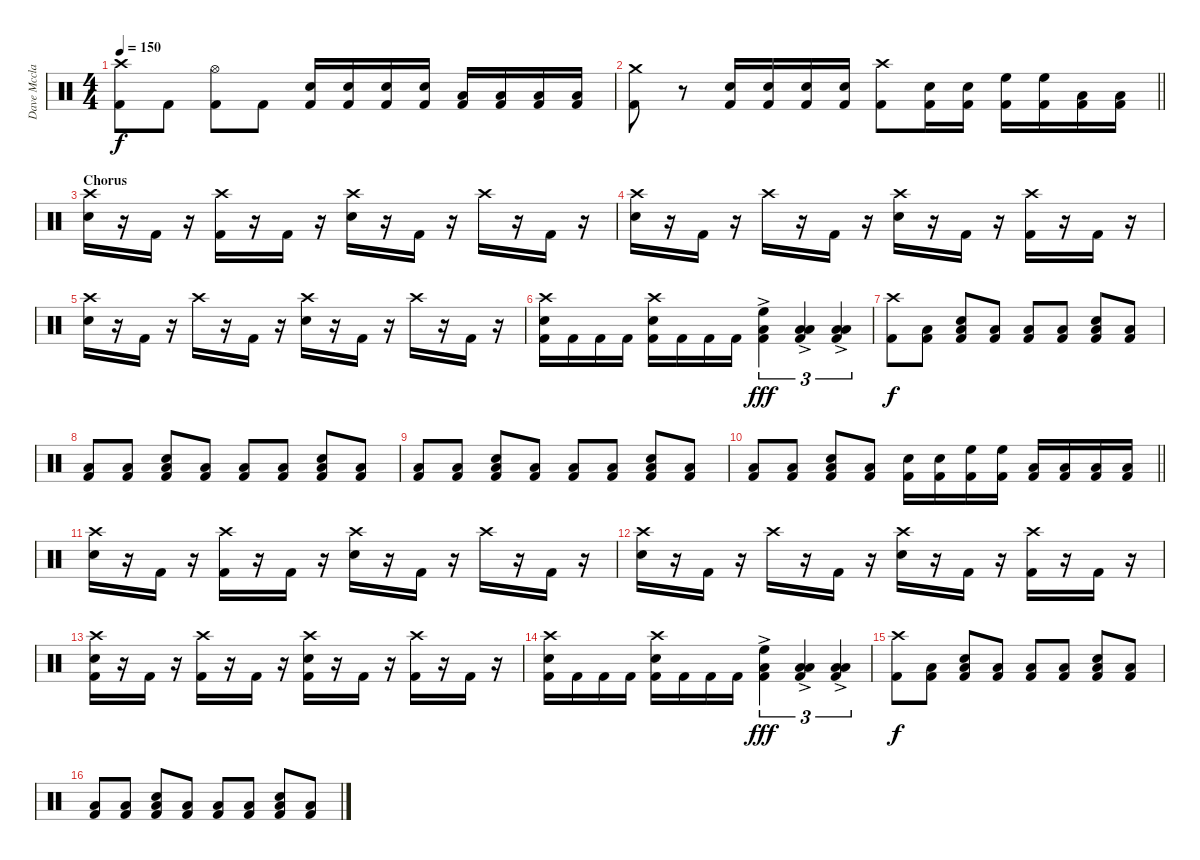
\track ("Dave Mcclain" "Dave Mccla") {instrument percussion}
\staff {score}
\articulation defaults
\ts (4 4)
\tempo 150
\clef neutral
\ks c
("Crash high (hit)" "Kick (hit) 2").8{dy f} "Kick (hit) 2".8 ("Hi-Hat (open)" "Kick (hit) 2").8 "Kick (hit) 2".8 ("Electric Snare (hit)" "Kick (hit) 2").16 ("Electric Snare (hit)" "Kick (hit) 2").16 ("Electric Snare (hit)" "Kick (hit) 2").16 ("Electric Snare (hit)" "Kick (hit) 2").16 ("Low Tom (hit)" "Kick (hit) 2").16 ("Low Tom (hit)" "Kick (hit) 2").16 ("Low Floor Tom (hit)" "Kick (hit) 2").16 ("Low Floor Tom (hit)" "Kick (hit) 2").16 |
\barLineRight lightlight
("Crash medium (hit)" "Kick (hit) 2").8 r.8 ("Electric Snare (hit)" "Kick (hit) 2").16 ("Electric Snare (hit)" "Kick (hit) 2").16 ("Electric Snare (hit)" "Kick (hit) 2").16 ("Electric Snare (hit)" "Kick (hit) 2").16 ("Crash high (hit)" "Kick (hit) 2").8 ("Electric Snare (hit)" "Kick (hit) 2").16 ("Electric Snare (hit)" "Kick (hit) 2").16 ("High Floor Tom (hit)" "Kick (hit) 2").16 ("High Floor Tom (hit)" "Kick (hit) 2").16 ("Low Tom (hit)" "Kick (hit) 2").16 ("Low Floor Tom (hit)" "Kick (hit) 2").16 |
\section ("" "Chorus")
("Crash high (hit)" "Electric Snare (hit)").16 r.16 "Kick (hit) 2".16 r.16 ("Crash high (hit)" "Kick (hit) 2").16 r.16 "Kick (hit) 2".16 r.16 ("Crash high (hit)" "Electric Snare (hit)").16 r.16 "Kick (hit) 2".16 r.16 "Crash high (hit)".16 r.16 "Kick (hit) 2".16 r.16 |
("Crash high (hit)" "Electric Snare (hit)").16 r.16 "Kick (hit) 2".16 r.16 "Crash high (hit)".16 r.16 "Kick (hit) 2".16 r.16 ("Crash high (hit)" "Electric Snare (hit)").16 r.16 "Kick (hit) 2".16 r.16 ("Crash high (hit)" "Kick (hit) 2").16 r.16 "Kick (hit) 2".16 r.16 |
("Crash high (hit)" "Electric Snare (hit)").16 r.16 "Kick (hit) 2".16 r.16 "Crash high (hit)".16 r.16 "Kick (hit) 2".16 r.16 ("Crash high (hit)" "Electric Snare (hit)").16 r.16 "Kick (hit) 2".16 r.16 "Crash high (hit)".16 r.16 "Kick (hit) 2".16 r.16 |
("Crash high (hit)" "Electric Snare (hit)" "Kick (hit) 2").16 "Kick (hit) 2".16 "Kick (hit) 2".16 "Kick (hit) 2".16 ("Crash high (hit)" "Electric Snare (hit)" "Kick (hit) 2").16 "Kick (hit) 2".16 "Kick (hit) 2".16 "Kick (hit) 2".16 ("High Floor Tom (hit)"{ac} "Low Floor Tom (hit)"{ac} "Kick (hit) 2"{ac}).4{tu (3 2) dy fff} ("Low Tom (hit)"{ac} "Low Floor Tom (hit)"{ac} "Kick (hit) 2"{ac}).4{tu (3 2)} ("Low Floor Tom (hit)"{ac} "Low Floor Tom (hit)"{ac} "Kick (hit) 2"{ac}).4{tu (3 2)} |
("Crash high (hit)" "Kick (hit) 2").8{dy f} ("Low Floor Tom (hit)" "Kick (hit) 2").8 ("Low Floor Tom (hit)" "Electric Snare (hit)" "Kick (hit) 2").8 ("Low Floor Tom (hit)" "Kick (hit) 2").8 ("Low Floor Tom (hit)" "Kick (hit) 2").8 ("Low Floor Tom (hit)" "Kick (hit) 2").8 ("Low Floor Tom (hit)" "Electric Snare (hit)" "Kick (hit) 2").8 ("Low Floor Tom (hit)" "Kick (hit) 2").8 |
("Low Floor Tom (hit)" "Kick (hit) 2").8 ("Low Floor Tom (hit)" "Kick (hit) 2").8 ("Low Floor Tom (hit)" "Electric Snare (hit)" "Kick (hit) 2").8 ("Low Floor Tom (hit)" "Kick (hit) 2").8 ("Low Floor Tom (hit)" "Kick (hit) 2").8 ("Low Floor Tom (hit)" "Kick (hit) 2").8 ("Low Floor Tom (hit)" "Electric Snare (hit)" "Kick (hit) 2").8 ("Low Floor Tom (hit)" "Kick (hit) 2").8 |
("Low Floor Tom (hit)" "Kick (hit) 2").8 ("Low Floor Tom (hit)" "Kick (hit) 2").8 ("Low Floor Tom (hit)" "Electric Snare (hit)" "Kick (hit) 2").8 ("Low Floor Tom (hit)" "Kick (hit) 2").8 ("Low Floor Tom (hit)" "Kick (hit) 2").8 ("Low Floor Tom (hit)" "Kick (hit) 2").8 ("Low Floor Tom (hit)" "Electric Snare (hit)" "Kick (hit) 2").8 ("Low Floor Tom (hit)" "Kick (hit) 2").8 |
\barLineRight lightlight
("Low Floor Tom (hit)" "Kick (hit) 2").8 ("Low Floor Tom (hit)" "Kick (hit) 2").8 ("Low Floor Tom (hit)" "Electric Snare (hit)" "Kick (hit) 2").8 ("Low Floor Tom (hit)" "Kick (hit) 2").8 ("Electric Snare (hit)" "Kick (hit) 2").16 ("Electric Snare (hit)" "Kick (hit) 2").16 ("High Floor Tom (hit)" "Kick (hit) 2").16 ("High Floor Tom (hit)" "Kick (hit) 2").16 ("Low Tom (hit)" "Kick (hit) 2").16 ("Low Tom (hit)" "Kick (hit) 2").16 ("Low Floor Tom (hit)" "Kick (hit) 2").16 ("Low Floor Tom (hit)" "Kick (hit) 2").16 |
\section ("" "")
("Crash high (hit)" "Electric Snare (hit)").16 r.16 "Kick (hit) 2".16 r.16 ("Crash high (hit)" "Kick (hit) 2").16 r.16 "Kick (hit) 2".16 r.16 ("Crash high (hit)" "Electric Snare (hit)").16 r.16 "Kick (hit) 2".16 r.16 "Crash high (hit)".16 r.16 "Kick (hit) 2".16 r.16 |
("Crash high (hit)" "Electric Snare (hit)").16 r.16 "Kick (hit) 2".16 r.16 "Crash high (hit)".16 r.16 "Kick (hit) 2".16 r.16 ("Crash high (hit)" "Electric Snare (hit)").16 r.16 "Kick (hit) 2".16 r.16 ("Crash high (hit)" "Kick (hit) 2").16 r.16 "Kick (hit) 2".16 r.16 |
("Crash high (hit)" "Electric Snare (hit)" "Kick (hit) 2").16 r.16 "Kick (hit) 2".16 r.16 ("Crash high (hit)" "Kick (hit) 2").16 r.16 "Kick (hit) 2".16 r.16 ("Crash high (hit)" "Electric Snare (hit)" "Kick (hit) 2").16 r.16 "Kick (hit) 2".16 r.16 ("Crash high (hit)" "Kick (hit) 2").16 r.16 "Kick (hit) 2".16 r.16 |
("Crash high (hit)" "Electric Snare (hit)" "Kick (hit) 2").16 "Kick (hit) 2".16 "Kick (hit) 2".16 "Kick (hit) 2".16 ("Crash high (hit)" "Electric Snare (hit)" "Kick (hit) 2").16 "Kick (hit) 2".16 "Kick (hit) 2".16 "Kick (hit) 2".16 ("High Floor Tom (hit)"{ac} "Low Floor Tom (hit)"{ac} "Kick (hit) 2"{ac}).4{tu (3 2) dy fff} ("Low Tom (hit)"{ac} "Low Floor Tom (hit)"{ac} "Kick (hit) 2"{ac}).4{tu (3 2)} ("Low Floor Tom (hit)"{ac} "Low Floor Tom (hit)"{ac} "Kick (hit) 2"{ac}).4{tu (3 2)} |
("Crash high (hit)" "Kick (hit) 2").8{dy f} ("Low Floor Tom (hit)" "Kick (hit) 2").8 ("Low Floor Tom (hit)" "Electric Snare (hit)" "Kick (hit) 2").8 ("Low Floor Tom (hit)" "Kick (hit) 2").8 ("Low Floor Tom (hit)" "Kick (hit) 2").8 ("Low Floor Tom (hit)" "Kick (hit) 2").8 ("Low Floor Tom (hit)" "Electric Snare (hit)" "Kick (hit) 2").8 ("Low Floor Tom (hit)" "Kick (hit) 2").8 |
("Low Floor Tom (hit)" "Kick (hit) 2").8 ("Low Floor Tom (hit)" "Kick (hit) 2").8 ("Low Floor Tom (hit)" "Electric Snare (hit)" "Kick (hit) 2").8 ("Low Floor Tom (hit)" "Kick (hit) 2").8 ("Low Floor Tom (hit)" "Kick (hit) 2").8 ("Low Floor Tom (hit)" "Kick (hit) 2").8 ("Low Floor Tom (hit)" "Electric Snare (hit)" "Kick (hit) 2").8 ("Low Floor Tom (hit)" "Kick (hit) 2").8
